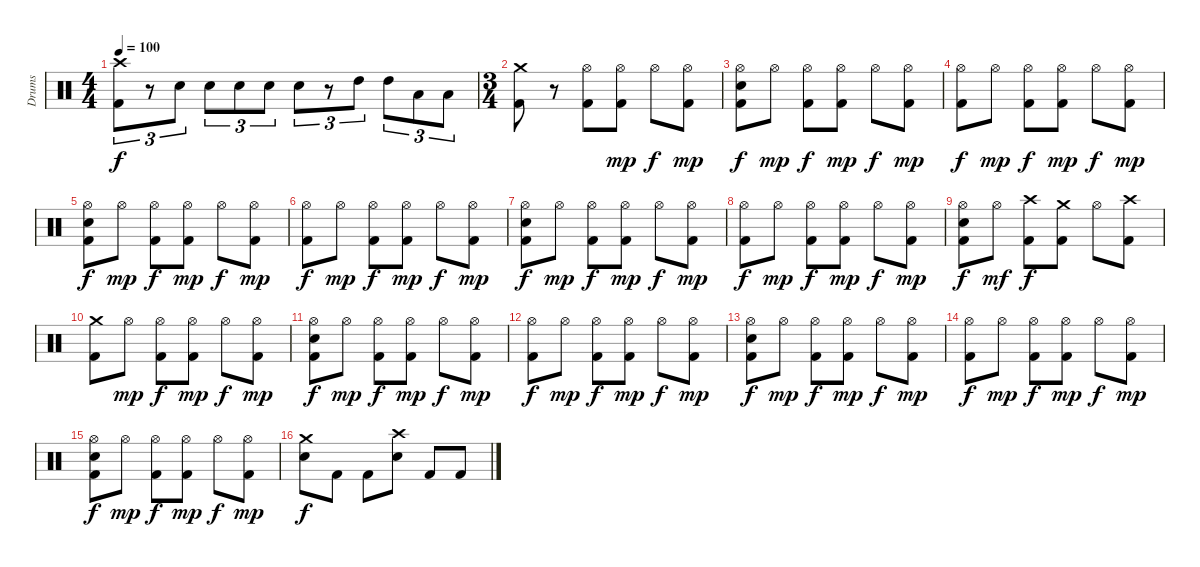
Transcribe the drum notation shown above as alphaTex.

\track ("Drums" "Drums") {instrument percussion}
\staff {score}
\articulation defaults
\ts (4 4)
\tempo 100
\clef neutral
\ks c
("Crash high (hit)" "Kick (hit) 2").8{tu (3 2) dy f} r.8{tu (3 2)} "Snare (hit) 2".8{tu (3 2)} "Snare (hit) 2".8{tu (3 2)} "Snare (hit) 2".8{tu (3 2)} "Snare (hit) 2".8{tu (3 2)} "Snare (hit) 2".8{tu (3 2)} r.8{tu (3 2)} "High Tom (hit)".8{tu (3 2)} "High Tom (hit)".8{tu (3 2)} "Low Tom (hit)".8{tu (3 2)} "Low Tom (hit)".8{tu (3 2)} |
\ts (3 4)
("Crash medium (hit)" "Kick (hit) 2").8 r.8 ("Hi-Hat (open)" "Kick (hit) 2").8 ("Hi-Hat (open)" "Kick (hit) 2").8{dy mp} "Hi-Hat (open)".8{dy f} ("Hi-Hat (open)" "Kick (hit) 2").8{dy mp} |
("Hi-Hat (open)" "Snare (hit) 2" "Kick (hit) 2").8{dy f} "Hi-Hat (open)".8{dy mp} ("Hi-Hat (open)" "Kick (hit) 2").8{dy f} ("Hi-Hat (open)" "Kick (hit) 2").8{dy mp} "Hi-Hat (open)".8{dy f} ("Hi-Hat (open)" "Kick (hit) 2").8{dy mp} |
("Hi-Hat (open)" "Kick (hit) 2").8{dy f} "Hi-Hat (open)".8{dy mp} ("Hi-Hat (open)" "Kick (hit) 2").8{dy f} ("Hi-Hat (open)" "Kick (hit) 2").8{dy mp} "Hi-Hat (open)".8{dy f} ("Hi-Hat (open)" "Kick (hit) 2").8{dy mp} |
("Hi-Hat (open)" "Snare (hit) 2" "Kick (hit) 2").8{dy f} "Hi-Hat (open)".8{dy mp} ("Hi-Hat (open)" "Kick (hit) 2").8{dy f} ("Hi-Hat (open)" "Kick (hit) 2").8{dy mp} "Hi-Hat (open)".8{dy f} ("Hi-Hat (open)" "Kick (hit) 2").8{dy mp} |
("Hi-Hat (open)" "Kick (hit) 2").8{dy f} "Hi-Hat (open)".8{dy mp} ("Hi-Hat (open)" "Kick (hit) 2").8{dy f} ("Hi-Hat (open)" "Kick (hit) 2").8{dy mp} "Hi-Hat (open)".8{dy f} ("Hi-Hat (open)" "Kick (hit) 2").8{dy mp} |
("Hi-Hat (open)" "Snare (hit) 2" "Kick (hit) 2").8{dy f} "Hi-Hat (open)".8{dy mp} ("Hi-Hat (open)" "Kick (hit) 2").8{dy f} ("Hi-Hat (open)" "Kick (hit) 2").8{dy mp} "Hi-Hat (open)".8{dy f} ("Hi-Hat (open)" "Kick (hit) 2").8{dy mp} |
("Hi-Hat (open)" "Kick (hit) 2").8{dy f} "Hi-Hat (open)".8{dy mp} ("Hi-Hat (open)" "Kick (hit) 2").8{dy f} ("Hi-Hat (open)" "Kick (hit) 2").8{dy mp} "Hi-Hat (open)".8{dy f} ("Hi-Hat (open)" "Kick (hit) 2").8{dy mp} |
("Hi-Hat (open)" "Snare (hit) 2" "Kick (hit) 2").8{dy f} "Hi-Hat (open)".8{dy mf} ("Crash high (hit)" "Kick (hit) 2").8{dy f} ("Crash medium (hit)" "Kick (hit) 2").8 "Hi-Hat (open)".8 ("Crash high (hit)" "Kick (hit) 2").8 |
("Crash medium (hit)" "Kick (hit) 2").8 "Hi-Hat (open)".8{dy mp} ("Hi-Hat (open)" "Kick (hit) 2").8{dy f} ("Hi-Hat (open)" "Kick (hit) 2").8{dy mp} "Hi-Hat (open)".8{dy f} ("Hi-Hat (open)" "Kick (hit) 2").8{dy mp} |
("Hi-Hat (open)" "Snare (hit) 2" "Kick (hit) 2").8{dy f} "Hi-Hat (open)".8{dy mp} ("Hi-Hat (open)" "Kick (hit) 2").8{dy f} ("Hi-Hat (open)" "Kick (hit) 2").8{dy mp} "Hi-Hat (open)".8{dy f} ("Hi-Hat (open)" "Kick (hit) 2").8{dy mp} |
("Hi-Hat (open)" "Kick (hit) 2").8{dy f} "Hi-Hat (open)".8{dy mp} ("Hi-Hat (open)" "Kick (hit) 2").8{dy f} ("Hi-Hat (open)" "Kick (hit) 2").8{dy mp} "Hi-Hat (open)".8{dy f} ("Hi-Hat (open)" "Kick (hit) 2").8{dy mp} |
("Hi-Hat (open)" "Snare (hit) 2" "Kick (hit) 2").8{dy f} "Hi-Hat (open)".8{dy mp} ("Hi-Hat (open)" "Kick (hit) 2").8{dy f} ("Hi-Hat (open)" "Kick (hit) 2").8{dy mp} "Hi-Hat (open)".8{dy f} ("Hi-Hat (open)" "Kick (hit) 2").8{dy mp} |
("Hi-Hat (open)" "Kick (hit) 2").8{dy f} "Hi-Hat (open)".8{dy mp} ("Hi-Hat (open)" "Kick (hit) 2").8{dy f} ("Hi-Hat (open)" "Kick (hit) 2").8{dy mp} "Hi-Hat (open)".8{dy f} ("Hi-Hat (open)" "Kick (hit) 2").8{dy mp} |
("Hi-Hat (open)" "Snare (hit) 2" "Kick (hit) 2").8{dy f} "Hi-Hat (open)".8{dy mp} ("Hi-Hat (open)" "Kick (hit) 2").8{dy f} ("Hi-Hat (open)" "Kick (hit) 2").8{dy mp} "Hi-Hat (open)".8{dy f} ("Hi-Hat (open)" "Kick (hit) 2").8{dy mp} |
("Crash medium (hit)" "Snare (hit) 2").8{dy f} "Kick (hit) 2".8 "Kick (hit) 2".8 ("Crash high (hit)" "Snare (hit) 2").8 "Kick (hit) 2".8 "Kick (hit) 2".8
